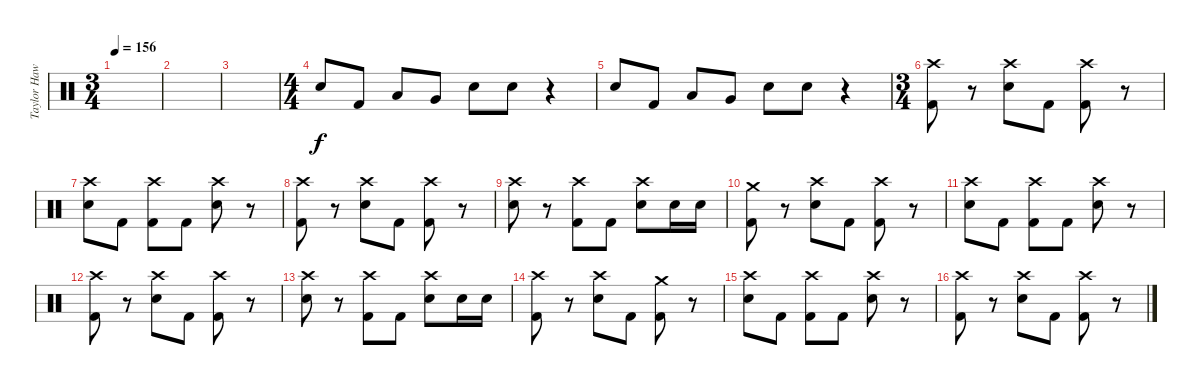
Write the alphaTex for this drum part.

\track ("Taylor Hawkins" "Taylor Haw") {instrument percussion}
\staff {score}
\articulation defaults
\ts (3 4)
\tempo 156
\clef neutral
\ks c
|
|
|
\ts (4 4)
"Snare (hit) 2".8 "Kick (hit) 2".8 "Low Tom (hit)".8 "Very Low Tom (hit)".8 "Snare (hit) 2".8 "Snare (hit) 2".8 r.4 |
"Snare (hit) 2".8 "Kick (hit) 2".8 "Low Tom (hit)".8 "Very Low Tom (hit)".8 "Snare (hit) 2".8 "Snare (hit) 2".8 r.4 |
\ts (3 4)
("Crash high (hit)" "Kick (hit) 2").8 r.8 ("Crash high (hit)" "Electric Snare (hit)").8 "Kick (hit) 2".8 ("Crash high (hit)" "Kick (hit) 2").8 r.8 |
("Crash high (hit)" "Electric Snare (hit)").8 "Kick (hit) 2".8 ("Crash high (hit)" "Kick (hit) 2").8 "Kick (hit) 2".8 ("Crash high (hit)" "Electric Snare (hit)").8 r.8 |
("Crash high (hit)" "Kick (hit) 2").8 r.8 ("Crash high (hit)" "Electric Snare (hit)").8 "Kick (hit) 2".8 ("Crash high (hit)" "Kick (hit) 2").8 r.8 |
("Crash high (hit)" "Electric Snare (hit)").8 r.8 ("Crash high (hit)" "Kick (hit) 2").8 "Kick (hit) 2".8 ("Crash high (hit)" "Electric Snare (hit)").8 "Electric Snare (hit)".16 "Electric Snare (hit)".16 |
("Crash medium (hit)" "Kick (hit) 2").8 r.8 ("Crash high (hit)" "Electric Snare (hit)").8 "Kick (hit) 2".8 ("Crash high (hit)" "Kick (hit) 2").8 r.8 |
("Crash high (hit)" "Electric Snare (hit)").8 "Kick (hit) 2".8 ("Crash high (hit)" "Kick (hit) 2").8 "Kick (hit) 2".8 ("Crash high (hit)" "Electric Snare (hit)").8 r.8 |
("Crash high (hit)" "Kick (hit) 2").8 r.8 ("Crash high (hit)" "Electric Snare (hit)").8 "Kick (hit) 2".8 ("Crash high (hit)" "Kick (hit) 2").8 r.8 |
("Crash high (hit)" "Electric Snare (hit)").8 r.8 ("Crash high (hit)" "Kick (hit) 2").8 "Kick (hit) 2".8 ("Crash high (hit)" "Electric Snare (hit)").8 "Electric Snare (hit)".16 "Electric Snare (hit)".16 |
("Crash high (hit)" "Kick (hit) 2").8 r.8 ("Crash high (hit)" "Electric Snare (hit)").8 "Kick (hit) 2".8 ("Crash medium (hit)" "Kick (hit) 2").8 r.8 |
("Crash high (hit)" "Electric Snare (hit)").8 "Kick (hit) 2".8 ("Crash high (hit)" "Kick (hit) 2").8 "Kick (hit) 2".8 ("Crash high (hit)" "Electric Snare (hit)").8 r.8 |
("Crash high (hit)" "Kick (hit) 2").8 r.8 ("Crash high (hit)" "Electric Snare (hit)").8 "Kick (hit) 2".8 ("Crash high (hit)" "Kick (hit) 2").8 r.8
